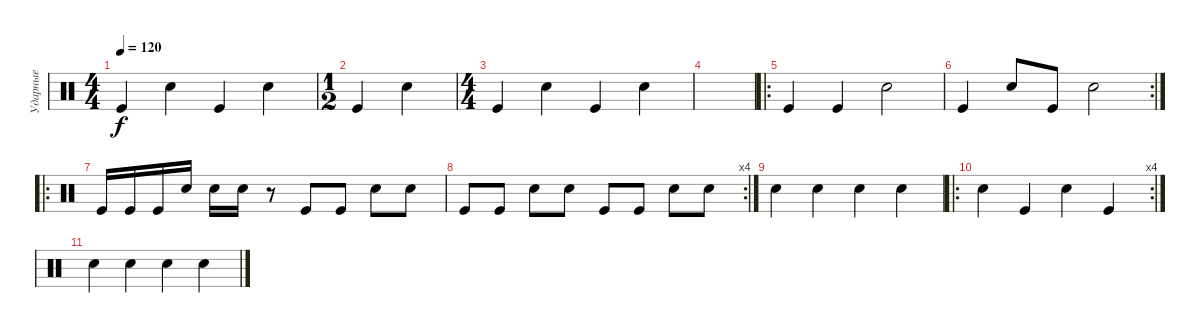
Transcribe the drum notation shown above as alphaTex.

\track ("Ударные" "Ударные") {instrument percussion}
\staff {score}
\articulation defaults
\ts (4 4)
\tempo 120
\clef neutral
\ks c "Kick (hit)".4{dy f} "Electric Snare (hit)".4 "Kick (hit)".4 "Electric Snare (hit)".4
|
\ts (1 2)
"Kick (hit)".4 "Electric Snare (hit)".4 |
\ts (4 4)
"Kick (hit)".4 "Electric Snare (hit)".4 "Kick (hit)".4 "Electric Snare (hit)".4 |
|
\ro "Kick (hit)".4 "Kick (hit)".4 "Electric Snare (hit)".2
|
\rc 2 "Kick (hit)".4 "Snare (hit) 2".8 "Kick (hit)".8 "Electric Snare (hit)".2
|
\ro "Kick (hit)".16 "Kick (hit)".16 "Kick (hit)".16 "Electric Snare (hit)".16 "Electric Snare (hit)".16 "Electric Snare (hit)".16
r.8 "Kick (hit)".8 "Kick (hit)".8 "Electric Snare (hit)".8 "Electric Snare (hit)".8 |
\rc 4 "Kick (hit)".8 "Kick (hit)".8 "Electric Snare (hit)".8 "Electric Snare (hit)".8 "Kick (hit)".8 "Kick (hit)".8 "Electric Snare (hit)".8 "Electric Snare (hit)".8
|
"Electric Snare (hit)".4 "Electric Snare (hit)".4 "Electric Snare (hit)".4 "Electric Snare (hit)".4 |
\ro
\rc 4 "Electric Snare (hit)".4 "Kick (hit)".4 "Electric Snare (hit)".4 "Kick (hit)".4
|
"Electric Snare (hit)".4 "Electric Snare (hit)".4 "Electric Snare (hit)".4 "Electric Snare (hit)".4
